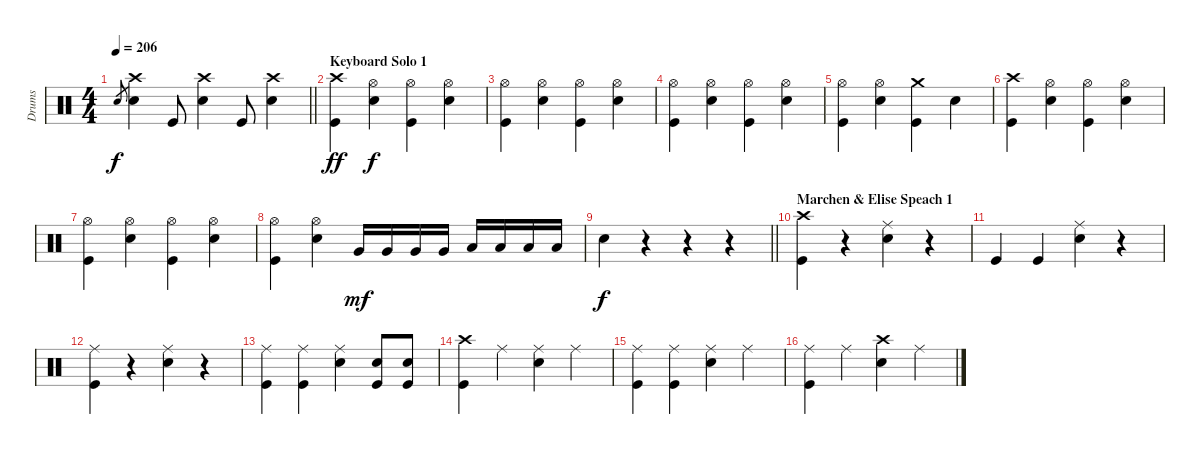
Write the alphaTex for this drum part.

\track ("Drums" "Drums") {instrument percussion}
\staff {score}
\articulation defaults
\ts (4 4)
\tempo 206
\clef neutral
\barLineRight lightlight
\ks c "Electric Snare (hit)".8{gr dy f}
("Crash high (hit)" "Electric Snare (hit)").4 "Kick (hit)".8 ("Crash high (hit)" "Electric Snare (hit)").4 "Kick (hit)".8 ("Crash high (hit)" "Electric Snare (hit)").4 |
\section ("" "Keyboard Solo 1")
("Crash high (hit)" "Kick (hit)").4{dy ff} ("Hi-Hat (open)" "Electric Snare (hit)").4{dy f} ("Hi-Hat (open)" "Kick (hit)").4 ("Hi-Hat (open)" "Electric Snare (hit)").4 |
("Hi-Hat (open)" "Kick (hit)").4 ("Hi-Hat (open)" "Electric Snare (hit)").4 ("Hi-Hat (open)" "Kick (hit)").4 ("Hi-Hat (open)" "Electric Snare (hit)").4 |
("Hi-Hat (open)" "Kick (hit)").4 ("Hi-Hat (open)" "Electric Snare (hit)").4 ("Hi-Hat (open)" "Kick (hit)").4 ("Hi-Hat (open)" "Electric Snare (hit)").4 |
("Hi-Hat (open)" "Kick (hit)").4 ("Hi-Hat (open)" "Electric Snare (hit)").4 ("Crash medium (hit)" "Kick (hit)").4 "Electric Snare (hit)".4 |
("Crash high (hit)" "Kick (hit)").4 ("Hi-Hat (open)" "Electric Snare (hit)").4 ("Hi-Hat (open)" "Kick (hit)").4 ("Hi-Hat (open)" "Electric Snare (hit)").4 |
("Hi-Hat (open)" "Kick (hit)").4 ("Hi-Hat (open)" "Electric Snare (hit)").4 ("Hi-Hat (open)" "Kick (hit)").4 ("Hi-Hat (open)" "Electric Snare (hit)").4 |
("Hi-Hat (open)" "Kick (hit)").4 ("Hi-Hat (open)" "Electric Snare (hit)").4 "Very Low Tom (hit)".16{dy mf} "Very Low Tom (hit)".16 "Very Low Tom (hit)".16 "Very Low Tom (hit)".16 "Low Floor Tom (hit)".16 "Low Floor Tom (hit)".16 "Low Floor Tom (hit)".16 "Low Floor Tom (hit)".16 |
\barLineRight lightlight "Electric Snare (hit)".4{dy f}
r.4 r.4 r.4 |
\section ("" "Marchen & Elise Speach 1")
("Crash high (hit)" "Kick (hit)").4 r.4 ("Ride (middle)" "Electric Snare (hit)").4 r.4 |
"Kick (hit)".4 "Kick (hit)".4 ("Ride (middle)" "Electric Snare (hit)").4 r.4 |
("Ride (middle)" "Kick (hit)").4 r.4 ("Ride (middle)" "Electric Snare (hit)").4 r.4 |
("Ride (middle)" "Kick (hit)").4 ("Ride (middle)" "Kick (hit)").4 ("Ride (middle)" "Electric Snare (hit)").4 ("Electric Snare (hit)" "Kick (hit)").8 ("Electric Snare (hit)" "Kick (hit)").8 |
("Crash high (hit)" "Kick (hit)").4 "Ride (middle)".4 ("Ride (middle)" "Electric Snare (hit)").4 "Ride (middle)".4 |
("Ride (middle)" "Kick (hit)").4 ("Ride (middle)" "Kick (hit)").4 ("Ride (middle)" "Electric Snare (hit)").4 "Ride (middle)".4 |
("Ride (middle)" "Kick (hit)").4 "Ride (middle)".4 ("Crash high (hit)" "Electric Snare (hit)").4 "Ride (middle)".4
